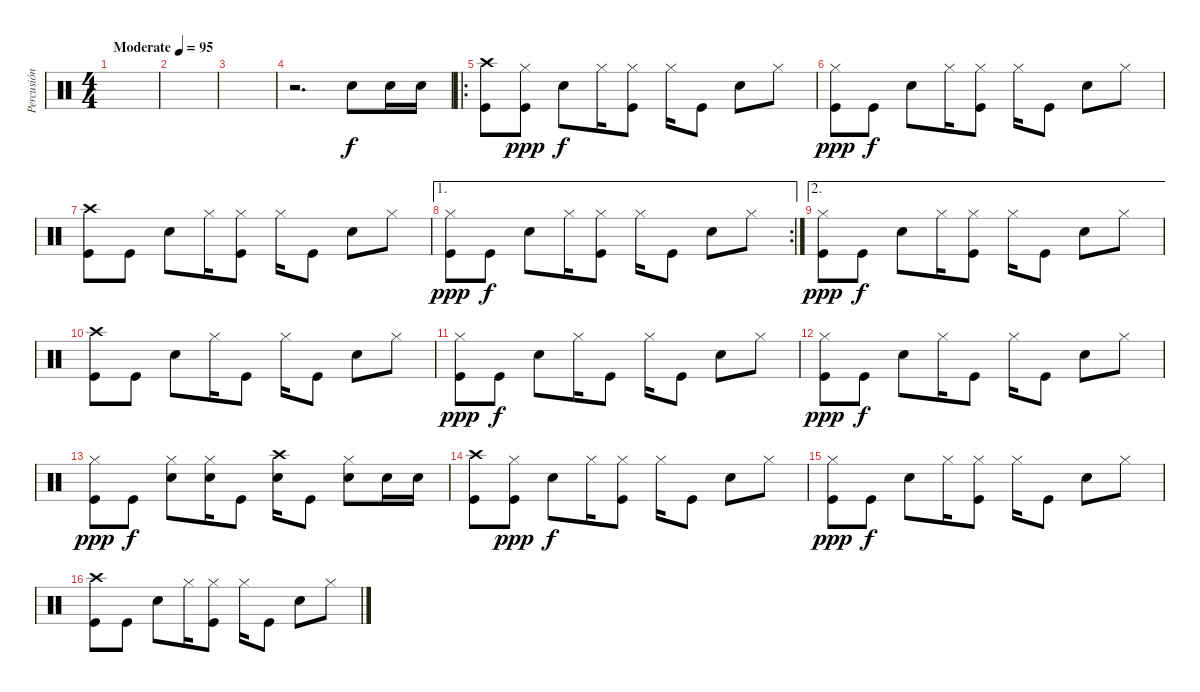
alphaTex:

\track ("Percusión" "Percusión") {instrument percussion}
\staff {score}
\articulation defaults
\ts (4 4)
\tempo (95 "Moderate")
\clef neutral
\ks c
|
|
|
r.2{d} "Snare (hit) 2".8 "Snare (hit) 2".16 "Snare (hit) 2".16 |
\ro
("Kick (hit)" "Crash high (hit)").8 ("Kick (hit)" "Hi-Hat (closed)").8{dy ppp} "Snare (hit) 2".8{dy f} "Hi-Hat (closed)".16 ("Kick (hit)" "Hi-Hat (closed)").8 "Hi-Hat (closed)".16 "Kick (hit)".8 "Snare (hit) 2".8 "Hi-Hat (closed)".8 |
("Kick (hit)" "Hi-Hat (closed)").8{dy ppp} "Kick (hit)".8{dy f} "Snare (hit) 2".8 "Hi-Hat (closed)".16 ("Kick (hit)" "Hi-Hat (closed)").8 "Hi-Hat (closed)".16 "Kick (hit)".8 "Snare (hit) 2".8 "Hi-Hat (closed)".8 |
("Kick (hit)" "Crash high (hit)").8 "Kick (hit)".8 "Snare (hit) 2".8 "Hi-Hat (closed)".16 ("Kick (hit)" "Hi-Hat (closed)").8 "Hi-Hat (closed)".16 "Kick (hit)".8 "Snare (hit) 2".8 "Hi-Hat (closed)".8 |
\ae 1
\rc 2
("Kick (hit)" "Hi-Hat (closed)").8{dy ppp} "Kick (hit)".8{dy f} "Snare (hit) 2".8 "Hi-Hat (closed)".16 ("Kick (hit)" "Hi-Hat (closed)").8 "Hi-Hat (closed)".16 "Kick (hit)".8 "Snare (hit) 2".8 "Hi-Hat (closed)".8 |
\ae 2
("Kick (hit)" "Hi-Hat (closed)").8{dy ppp} "Kick (hit)".8{dy f} "Snare (hit) 2".8 "Hi-Hat (closed)".16 ("Kick (hit)" "Hi-Hat (closed)").8 "Hi-Hat (closed)".16 "Kick (hit)".8 "Snare (hit) 2".8 "Hi-Hat (closed)".8 |
("Kick (hit)" "Crash high (hit)").8 "Kick (hit)".8 "Snare (hit) 2".8 "Hi-Hat (closed)".16 "Kick (hit)".8 "Hi-Hat (closed)".16 "Kick (hit)".8 "Snare (hit) 2".8 "Hi-Hat (closed)".8 |
("Kick (hit)" "Hi-Hat (closed)").8{dy ppp} "Kick (hit)".8{dy f} "Snare (hit) 2".8 "Hi-Hat (closed)".16 "Kick (hit)".8 "Hi-Hat (closed)".16 "Kick (hit)".8 "Snare (hit) 2".8 "Hi-Hat (closed)".8 |
("Kick (hit)" "Hi-Hat (closed)").8{dy ppp} "Kick (hit)".8{dy f} "Snare (hit) 2".8 "Hi-Hat (closed)".16 "Kick (hit)".8 "Hi-Hat (closed)".16 "Kick (hit)".8 "Snare (hit) 2".8 "Hi-Hat (closed)".8 |
("Kick (hit)" "Hi-Hat (closed)").8{dy ppp} "Kick (hit)".8{dy f} ("Snare (hit) 2" "Hi-Hat (closed)").8 ("Snare (hit) 2" "Hi-Hat (closed)").16 "Kick (hit)".8 ("Snare (hit) 2" "Crash high (hit)").16 "Kick (hit)".8 ("Snare (hit) 2" "Hi-Hat (closed)").8 "Snare (hit) 2".16 "Snare (hit) 2".16 |
("Kick (hit)" "Crash high (hit)").8 ("Kick (hit)" "Hi-Hat (closed)").8{dy ppp} "Snare (hit) 2".8{dy f} "Hi-Hat (closed)".16 ("Kick (hit)" "Hi-Hat (closed)").8 "Hi-Hat (closed)".16 "Kick (hit)".8 "Snare (hit) 2".8 "Hi-Hat (closed)".8 |
("Kick (hit)" "Hi-Hat (closed)").8{dy ppp} "Kick (hit)".8{dy f} "Snare (hit) 2".8 "Hi-Hat (closed)".16 ("Kick (hit)" "Hi-Hat (closed)").8 "Hi-Hat (closed)".16 "Kick (hit)".8 "Snare (hit) 2".8 "Hi-Hat (closed)".8 |
("Kick (hit)" "Crash high (hit)").8 "Kick (hit)".8 "Snare (hit) 2".8 "Hi-Hat (closed)".16 ("Kick (hit)" "Hi-Hat (closed)").8 "Hi-Hat (closed)".16 "Kick (hit)".8 "Snare (hit) 2".8 "Hi-Hat (closed)".8
